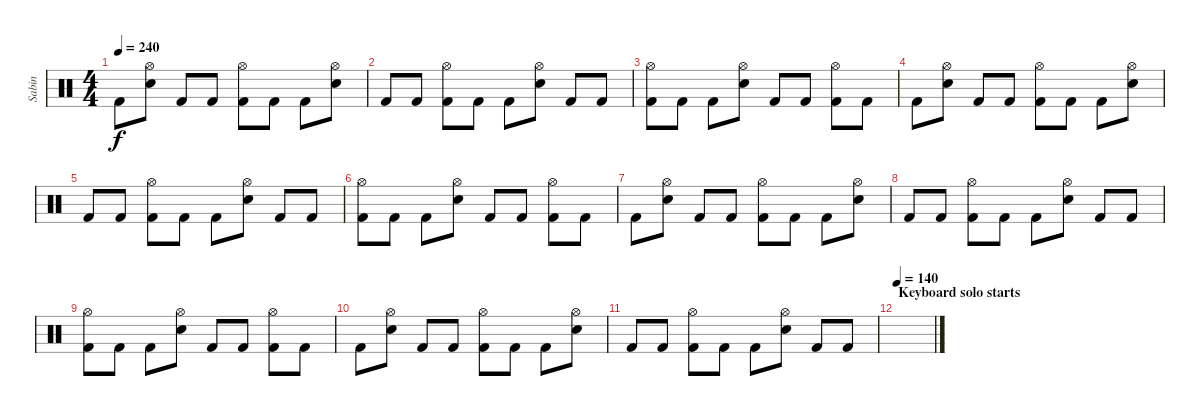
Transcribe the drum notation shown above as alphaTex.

\track ("Sabin" "Sabin") {instrument percussion}
\staff {score}
\articulation defaults
\ts (4 4)
\tempo 240
\clef neutral
\ks c "Kick (hit) 2".8{dy f}
("Hi-Hat (open)" "Snare (hit) 2").8 "Kick (hit) 2".8 "Kick (hit) 2".8 ("Hi-Hat (open)" "Kick (hit) 2").8 "Kick (hit) 2".8 "Kick (hit) 2".8 ("Hi-Hat (open)" "Snare (hit) 2").8 |
"Kick (hit) 2".8 "Kick (hit) 2".8 ("Hi-Hat (open)" "Kick (hit) 2").8 "Kick (hit) 2".8 "Kick (hit) 2".8 ("Hi-Hat (open)" "Snare (hit) 2").8 "Kick (hit) 2".8 "Kick (hit) 2".8 |
("Hi-Hat (open)" "Kick (hit) 2").8 "Kick (hit) 2".8 "Kick (hit) 2".8 ("Hi-Hat (open)" "Snare (hit) 2").8 "Kick (hit) 2".8 "Kick (hit) 2".8 ("Hi-Hat (open)" "Kick (hit) 2").8 "Kick (hit) 2".8 |
"Kick (hit) 2".8 ("Hi-Hat (open)" "Snare (hit) 2").8 "Kick (hit) 2".8 "Kick (hit) 2".8 ("Hi-Hat (open)" "Kick (hit) 2").8 "Kick (hit) 2".8 "Kick (hit) 2".8 ("Hi-Hat (open)" "Snare (hit) 2").8 |
"Kick (hit) 2".8 "Kick (hit) 2".8 ("Hi-Hat (open)" "Kick (hit) 2").8 "Kick (hit) 2".8 "Kick (hit) 2".8 ("Hi-Hat (open)" "Snare (hit) 2").8 "Kick (hit) 2".8 "Kick (hit) 2".8 |
("Hi-Hat (open)" "Kick (hit) 2").8 "Kick (hit) 2".8 "Kick (hit) 2".8 ("Hi-Hat (open)" "Snare (hit) 2").8 "Kick (hit) 2".8 "Kick (hit) 2".8 ("Hi-Hat (open)" "Kick (hit) 2").8 "Kick (hit) 2".8 |
"Kick (hit) 2".8 ("Hi-Hat (open)" "Snare (hit) 2").8 "Kick (hit) 2".8 "Kick (hit) 2".8 ("Hi-Hat (open)" "Kick (hit) 2").8 "Kick (hit) 2".8 "Kick (hit) 2".8 ("Hi-Hat (open)" "Snare (hit) 2").8 |
"Kick (hit) 2".8 "Kick (hit) 2".8 ("Hi-Hat (open)" "Kick (hit) 2").8 "Kick (hit) 2".8 "Kick (hit) 2".8 ("Hi-Hat (open)" "Snare (hit) 2").8 "Kick (hit) 2".8 "Kick (hit) 2".8 |
("Hi-Hat (open)" "Kick (hit) 2").8 "Kick (hit) 2".8 "Kick (hit) 2".8 ("Hi-Hat (open)" "Snare (hit) 2").8 "Kick (hit) 2".8 "Kick (hit) 2".8 ("Hi-Hat (open)" "Kick (hit) 2").8 "Kick (hit) 2".8 |
"Kick (hit) 2".8 ("Hi-Hat (open)" "Snare (hit) 2").8 "Kick (hit) 2".8 "Kick (hit) 2".8 ("Hi-Hat (open)" "Kick (hit) 2").8 "Kick (hit) 2".8 "Kick (hit) 2".8 ("Hi-Hat (open)" "Snare (hit) 2").8 |
"Kick (hit) 2".8 "Kick (hit) 2".8 ("Hi-Hat (open)" "Kick (hit) 2").8 "Kick (hit) 2".8 "Kick (hit) 2".8 ("Hi-Hat (open)" "Snare (hit) 2").8 "Kick (hit) 2".8 "Kick (hit) 2".8 |
\section ("" "Keyboard solo starts")
\tempo 140
